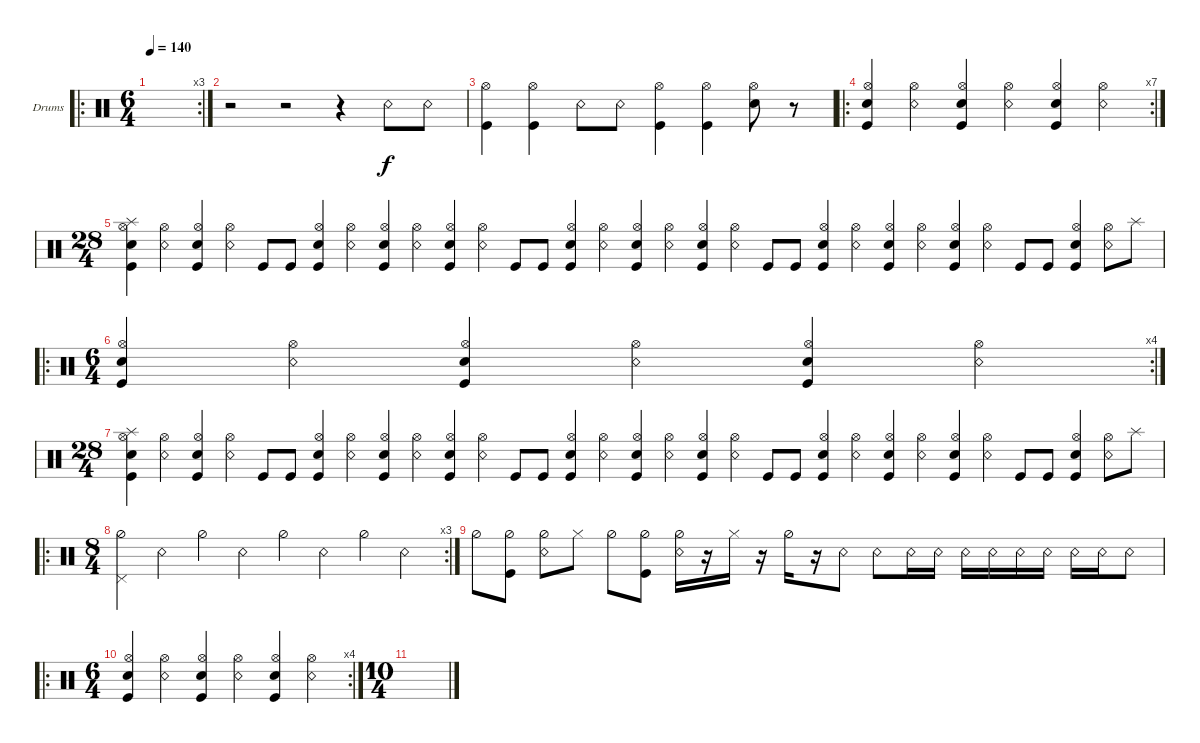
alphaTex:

\bracketExtendMode groupsimilarinstruments
\firstSystemTrackNameOrientation horizontal
\otherSystemsTrackNameOrientation horizontal
\track ("Drumkit" "Drums") {instrument percussion}
\staff {score}
\articulation defaults
\ro
\rc 3
\ts (6 4)
\tempo 140
\clef neutral
\ks c
|
r.2 r.2 r.4 "Snare (rim shot)".8 "Snare (rim shot)".8 |
("Kick (hit)" "Hi-Hat (open)").4 ("Kick (hit)" "Hi-Hat (open)").4 "Snare (rim shot)".8 "Snare (rim shot)".8 ("Kick (hit)" "Hi-Hat (open)").4 ("Kick (hit)" "Hi-Hat (open)").4 ("Snare (hit) 2" "Hi-Hat (open)").8 r.8 |
\ro
\rc 7
("Hi-Hat (open)" "Kick (hit)" "Snare (hit) 2").4 ("Snare (rim shot)" "Hi-Hat (open)").4 ("Kick (hit)" "Hi-Hat (open)" "Snare (hit) 2").4 ("Hi-Hat (open)" "Snare (rim shot)").4 ("Snare (hit) 2" "Kick (hit)" "Hi-Hat (open)").4 ("Hi-Hat (open)" "Snare (rim shot)").4 |
\ts (28 4)
("Hi-Hat (open)" "Kick (hit)" "Snare (hit) 2" "Splash (hit)").4 ("Snare (rim shot)" "Hi-Hat (open)").4 ("Hi-Hat (open)" "Kick (hit)" "Snare (hit) 2").4 ("Snare (rim shot)" "Hi-Hat (open)").4 "Kick (hit)".8 "Kick (hit)".8 ("Hi-Hat (open)" "Kick (hit)" "Snare (hit) 2").4 ("Snare (rim shot)" "Hi-Hat (open)").4 ("Hi-Hat (open)" "Kick (hit)" "Snare (hit) 2").4 ("Snare (rim shot)" "Hi-Hat (open)").4 ("Hi-Hat (open)" "Kick (hit)" "Snare (hit) 2").4 ("Snare (rim shot)" "Hi-Hat (open)").4 "Kick (hit)".8 "Kick (hit)".8 ("Hi-Hat (open)" "Kick (hit)" "Snare (hit) 2").4 ("Snare (rim shot)" "Hi-Hat (open)").4 ("Hi-Hat (open)" "Kick (hit)" "Snare (hit) 2").4 ("Snare (rim shot)" "Hi-Hat (open)").4 ("Hi-Hat (open)" "Kick (hit)" "Snare (hit) 2").4 ("Snare (rim shot)" "Hi-Hat (open)").4 "Kick (hit)".8 "Kick (hit)".8 ("Hi-Hat (open)" "Kick (hit)" "Snare (hit) 2").4 ("Snare (rim shot)" "Hi-Hat (open)").4 ("Hi-Hat (open)" "Kick (hit)" "Snare (hit) 2").4 ("Snare (rim shot)" "Hi-Hat (open)").4 ("Hi-Hat (open)" "Kick (hit)" "Snare (hit) 2").4 ("Snare (rim shot)" "Hi-Hat (open)").4 "Kick (hit)".8 "Kick (hit)".8 ("Hi-Hat (open)" "Kick (hit)" "Snare (hit) 2").4 ("Snare (rim shot)" "Hi-Hat (open)").8 "Splash (hit)".8 |
\ro
\rc 4
\ts (6 4)
("Hi-Hat (open)" "Kick (hit)" "Snare (hit) 2").4 ("Snare (rim shot)" "Hi-Hat (open)").4 ("Kick (hit)" "Hi-Hat (open)" "Snare (hit) 2").4 ("Hi-Hat (open)" "Snare (rim shot)").4 ("Snare (hit) 2" "Kick (hit)" "Hi-Hat (open)").4 ("Hi-Hat (open)" "Snare (rim shot)").4 |
\ts (28 4)
("Hi-Hat (open)" "Kick (hit)" "Snare (hit) 2" "Splash (hit)").4 ("Snare (rim shot)" "Hi-Hat (open)").4 ("Hi-Hat (open)" "Kick (hit)" "Snare (hit) 2").4 ("Snare (rim shot)" "Hi-Hat (open)").4 "Kick (hit)".8 "Kick (hit)".8 ("Hi-Hat (open)" "Kick (hit)" "Snare (hit) 2").4 ("Snare (rim shot)" "Hi-Hat (open)").4 ("Hi-Hat (open)" "Kick (hit)" "Snare (hit) 2").4 ("Snare (rim shot)" "Hi-Hat (open)").4 ("Hi-Hat (open)" "Kick (hit)" "Snare (hit) 2").4 ("Snare (rim shot)" "Hi-Hat (open)").4 "Kick (hit)".8 "Kick (hit)".8 ("Hi-Hat (open)" "Kick (hit)" "Snare (hit) 2").4 ("Snare (rim shot)" "Hi-Hat (open)").4 ("Hi-Hat (open)" "Kick (hit)" "Snare (hit) 2").4 ("Snare (rim shot)" "Hi-Hat (open)").4 ("Hi-Hat (open)" "Kick (hit)" "Snare (hit) 2").4 ("Snare (rim shot)" "Hi-Hat (open)").4 "Kick (hit)".8 "Kick (hit)".8 ("Hi-Hat (open)" "Kick (hit)" "Snare (hit) 2").4 ("Snare (rim shot)" "Hi-Hat (open)").4 ("Hi-Hat (open)" "Kick (hit)" "Snare (hit) 2").4 ("Snare (rim shot)" "Hi-Hat (open)").4 ("Hi-Hat (open)" "Kick (hit)" "Snare (hit) 2").4 ("Snare (rim shot)" "Hi-Hat (open)").4 "Kick (hit)".8 "Kick (hit)".8 ("Hi-Hat (open)" "Kick (hit)" "Snare (hit) 2").4 ("Snare (rim shot)" "Hi-Hat (open)").8 "Splash (hit)".8 |
\ro
\rc 3
\ts (8 4)
("Pedal Hi-Hat (hit)" "Hi-Hat (half)").4 "Snare (rim shot)".4 "Hi-Hat (half)".4 "Snare (rim shot)".4 "Hi-Hat (half)".4 "Snare (rim shot)".4 "Hi-Hat (half)".4 "Snare (rim shot)".4 |
"Hi-Hat (half)".8 ("Kick (hit)" "Hi-Hat (half)").8 ("Hi-Hat (half)" "Snare (rim shot)").8 "Hi-Hat (closed)".8 "Hi-Hat (half)".8 ("Kick (hit)" "Hi-Hat (half)").8 ("Hi-Hat (half)" "Snare (rim shot)").16 r.16 "Hi-Hat (closed)".16 r.16 "Hi-Hat (half)".16 r.16 "Snare (rim shot)".8 "Snare (rim shot)".8 "Snare (rim shot)".16 "Snare (rim shot)".16 "Snare (rim shot)".16 "Snare (rim shot)".16 "Snare (rim shot)".16 "Snare (rim shot)".16 "Snare (rim shot)".16 "Snare (rim shot)".16 "Snare (rim shot)".8 |
\ro
\rc 4
\ts (6 4)
("Hi-Hat (open)" "Kick (hit)" "Snare (hit) 2").4 ("Snare (rim shot)" "Hi-Hat (open)").4 ("Kick (hit)" "Hi-Hat (open)" "Snare (hit) 2").4 ("Hi-Hat (open)" "Snare (rim shot)").4 ("Snare (hit) 2" "Kick (hit)" "Hi-Hat (open)").4 ("Hi-Hat (open)" "Snare (rim shot)").4 |
\ts (10 4)
